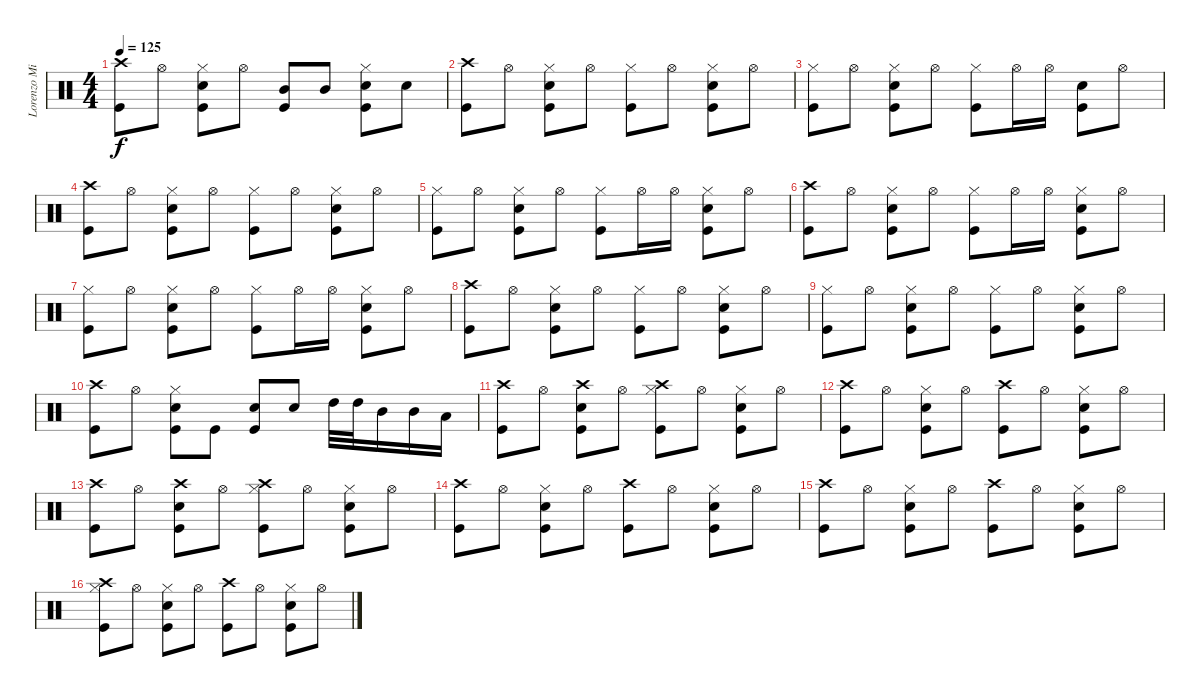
\track ("Lorenzo Milani - drums" "Lorenzo Mi") {instrument percussion}
\staff {score}
\articulation defaults
\ts (4 4)
\tempo 125
\clef neutral
\ks c
("Crash high (hit)" "Kick (hit)").8{dy f} "Hi-Hat (open)".8 ("Electric Snare (hit)" "Hi-Hat (closed)" "Kick (hit)").8 "Hi-Hat (open)".8 ("Mid Tom (hit)" "Kick (hit)").8 "Mid Tom (hit)".8 ("Electric Snare (hit)" "Hi-Hat (closed)" "Kick (hit)").8 "Electric Snare (hit)".8 |
("Crash high (hit)" "Kick (hit)").8 "Hi-Hat (open)".8 ("Electric Snare (hit)" "Hi-Hat (closed)" "Kick (hit)").8 "Hi-Hat (open)".8 ("Hi-Hat (closed)" "Kick (hit)").8 "Hi-Hat (open)".8 ("Electric Snare (hit)" "Hi-Hat (closed)" "Kick (hit)").8 "Hi-Hat (open)".8 |
("Hi-Hat (closed)" "Kick (hit)").8 "Hi-Hat (open)".8 ("Electric Snare (hit)" "Hi-Hat (closed)" "Kick (hit)").8 "Hi-Hat (open)".8 ("Hi-Hat (closed)" "Kick (hit)").8 "Hi-Hat (open)".16 "Hi-Hat (open)".16 ("Electric Snare (hit)" "Kick (hit)").8 "Hi-Hat (open)".8 |
("Crash high (hit)" "Kick (hit)").8 "Hi-Hat (open)".8 ("Electric Snare (hit)" "Hi-Hat (closed)" "Kick (hit)").8 "Hi-Hat (open)".8 ("Hi-Hat (closed)" "Kick (hit)").8 "Hi-Hat (open)".8 ("Electric Snare (hit)" "Hi-Hat (closed)" "Kick (hit)").8 "Hi-Hat (open)".8 |
("Hi-Hat (closed)" "Kick (hit)").8 "Hi-Hat (open)".8 ("Electric Snare (hit)" "Hi-Hat (closed)" "Kick (hit)").8 "Hi-Hat (open)".8 ("Hi-Hat (closed)" "Kick (hit)").8 "Hi-Hat (open)".16 "Hi-Hat (open)".16 ("Electric Snare (hit)" "Hi-Hat (closed)" "Kick (hit)").8 "Hi-Hat (open)".8 |
("Crash high (hit)" "Kick (hit)").8 "Hi-Hat (open)".8 ("Electric Snare (hit)" "Hi-Hat (closed)" "Kick (hit)").8 "Hi-Hat (open)".8 ("Hi-Hat (closed)" "Kick (hit)").8 "Hi-Hat (open)".16 "Hi-Hat (open)".16 ("Electric Snare (hit)" "Hi-Hat (closed)" "Kick (hit)").8 "Hi-Hat (open)".8 |
("Hi-Hat (closed)" "Kick (hit)").8 "Hi-Hat (open)".8 ("Electric Snare (hit)" "Hi-Hat (closed)" "Kick (hit)").8 "Hi-Hat (open)".8 ("Hi-Hat (closed)" "Kick (hit)").8 "Hi-Hat (open)".16 "Hi-Hat (open)".16 ("Electric Snare (hit)" "Hi-Hat (closed)" "Kick (hit)").8 "Hi-Hat (open)".8 |
("Crash high (hit)" "Kick (hit)").8 "Hi-Hat (open)".8 ("Electric Snare (hit)" "Hi-Hat (closed)" "Kick (hit)").8 "Hi-Hat (open)".8 ("Hi-Hat (closed)" "Kick (hit)").8 "Hi-Hat (open)".8 ("Electric Snare (hit)" "Hi-Hat (closed)" "Kick (hit)").8 "Hi-Hat (open)".8 |
("Hi-Hat (closed)" "Kick (hit)").8 "Hi-Hat (open)".8 ("Electric Snare (hit)" "Hi-Hat (closed)" "Kick (hit)").8 "Hi-Hat (open)".8 ("Hi-Hat (closed)" "Kick (hit)").8 "Hi-Hat (open)".8 ("Electric Snare (hit)" "Hi-Hat (closed)" "Kick (hit)").8 "Hi-Hat (open)".8 |
("Crash high (hit)" "Kick (hit)").8 "Hi-Hat (open)".8 ("Electric Snare (hit)" "Hi-Hat (closed)" "Kick (hit)").8 "Kick (hit)".8 ("Electric Snare (hit)" "Kick (hit)").8 "Electric Snare (hit)".8 "High Tom (hit)".32 "High Tom (hit)".32 "Mid Tom (hit)".16 "Mid Tom (hit)".16 "Low Tom (hit)".16 |
("Crash high (hit)" "Kick (hit)").8 "Hi-Hat (open)".8 ("Crash high (hit)" "Electric Snare (hit)" "Kick (hit)").8 "Hi-Hat (open)".8 ("Crash high (hit)" "Hi-Hat (closed)" "Kick (hit)").8 "Hi-Hat (open)".8 ("Electric Snare (hit)" "Hi-Hat (closed)" "Kick (hit)").8 "Hi-Hat (open)".8 |
("Crash high (hit)" "Kick (hit)").8 "Hi-Hat (open)".8 ("Electric Snare (hit)" "Hi-Hat (closed)" "Kick (hit)").8 "Hi-Hat (open)".8 ("Crash high (hit)" "Kick (hit)").8 "Hi-Hat (open)".8 ("Electric Snare (hit)" "Hi-Hat (closed)" "Kick (hit)").8 "Hi-Hat (open)".8 |
("Crash high (hit)" "Kick (hit)").8 "Hi-Hat (open)".8 ("Crash high (hit)" "Electric Snare (hit)" "Kick (hit)").8 "Hi-Hat (open)".8 ("Crash high (hit)" "Hi-Hat (closed)" "Kick (hit)").8 "Hi-Hat (open)".8 ("Electric Snare (hit)" "Hi-Hat (closed)" "Kick (hit)").8 "Hi-Hat (open)".8 |
("Crash high (hit)" "Kick (hit)").8 "Hi-Hat (open)".8 ("Electric Snare (hit)" "Hi-Hat (closed)" "Kick (hit)").8 "Hi-Hat (open)".8 ("Crash high (hit)" "Kick (hit)").8 "Hi-Hat (open)".8 ("Electric Snare (hit)" "Hi-Hat (closed)" "Kick (hit)").8 "Hi-Hat (open)".8 |
("Crash high (hit)" "Kick (hit)").8 "Hi-Hat (open)".8 ("Electric Snare (hit)" "Hi-Hat (closed)" "Kick (hit)").8 "Hi-Hat (open)".8 ("Crash high (hit)" "Kick (hit)").8 "Hi-Hat (open)".8 ("Electric Snare (hit)" "Hi-Hat (closed)" "Kick (hit)").8 "Hi-Hat (open)".8 |
("Crash high (hit)" "Hi-Hat (closed)" "Kick (hit)").8 "Hi-Hat (open)".8 ("Electric Snare (hit)" "Hi-Hat (closed)" "Kick (hit)").8 "Hi-Hat (open)".8 ("Crash high (hit)" "Kick (hit)").8 "Hi-Hat (open)".8 ("Electric Snare (hit)" "Hi-Hat (closed)" "Kick (hit)").8 "Hi-Hat (open)".8
